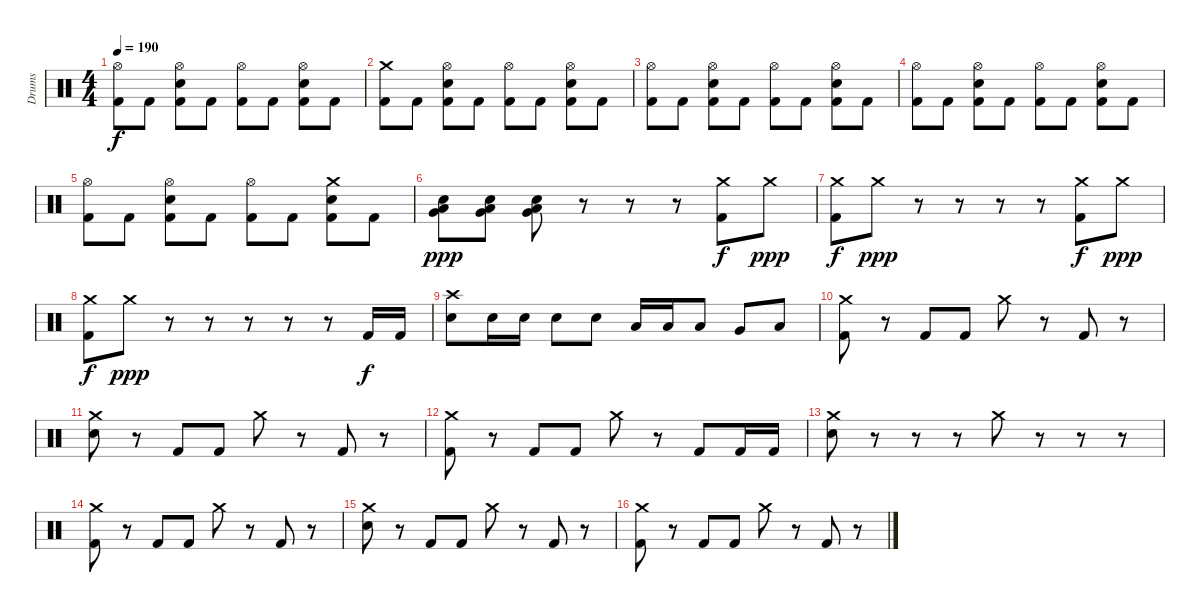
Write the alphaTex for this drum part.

\track ("Drums" "Drums") {instrument percussion}
\staff {score}
\articulation defaults
\ts (4 4)
\tempo 190
\clef neutral
\ks c
("Hi-Hat (open)" "Kick (hit) 2").8{dy f} "Kick (hit) 2".8 ("Hi-Hat (open)" "Electric Snare (hit)" "Kick (hit) 2").8 "Kick (hit) 2".8 ("Hi-Hat (open)" "Kick (hit) 2").8 "Kick (hit) 2".8 ("Hi-Hat (open)" "Electric Snare (hit)" "Kick (hit) 2").8 "Kick (hit) 2".8 |
("Crash medium (hit)" "Kick (hit) 2").8 "Kick (hit) 2".8 ("Hi-Hat (open)" "Electric Snare (hit)" "Kick (hit) 2").8 "Kick (hit) 2".8 ("Hi-Hat (open)" "Kick (hit) 2").8 "Kick (hit) 2".8 ("Hi-Hat (open)" "Electric Snare (hit)" "Kick (hit) 2").8 "Kick (hit) 2".8 |
("Hi-Hat (open)" "Kick (hit) 2").8 "Kick (hit) 2".8 ("Hi-Hat (open)" "Electric Snare (hit)" "Kick (hit) 2").8 "Kick (hit) 2".8 ("Hi-Hat (open)" "Kick (hit) 2").8 "Kick (hit) 2".8 ("Hi-Hat (open)" "Electric Snare (hit)" "Kick (hit) 2").8 "Kick (hit) 2".8 |
("Hi-Hat (open)" "Kick (hit) 2").8 "Kick (hit) 2".8 ("Hi-Hat (open)" "Electric Snare (hit)" "Kick (hit) 2").8 "Kick (hit) 2".8 ("Hi-Hat (open)" "Kick (hit) 2").8 "Kick (hit) 2".8 ("Hi-Hat (open)" "Electric Snare (hit)" "Kick (hit) 2").8 "Kick (hit) 2".8 |
("Hi-Hat (open)" "Kick (hit) 2").8 "Kick (hit) 2".8 ("Hi-Hat (open)" "Electric Snare (hit)" "Kick (hit) 2").8 "Kick (hit) 2".8 ("Hi-Hat (open)" "Kick (hit) 2").8 "Kick (hit) 2".8 ("Crash medium (hit)" "Electric Snare (hit)" "Kick (hit) 2").8 "Kick (hit) 2".8 |
("Electric Snare (hit)" "Very Low Tom (hit)" "Low Floor Tom (hit)").8{dy ppp} ("Electric Snare (hit)" "Very Low Tom (hit)" "Low Floor Tom (hit)").8 ("Electric Snare (hit)" "Very Low Tom (hit)" "Low Floor Tom (hit)").8 r.8 r.8 r.8 ("Crash medium (hit)" "Kick (hit) 2").8{dy f} "Crash medium (hit)".8{dy ppp} |
("Crash medium (hit)" "Kick (hit) 2").8{dy f} "Crash medium (hit)".8{dy ppp} r.8 r.8 r.8 r.8 ("Crash medium (hit)" "Kick (hit) 2").8{dy f} "Crash medium (hit)".8{dy ppp} |
("Crash medium (hit)" "Kick (hit) 2").8{dy f} "Crash medium (hit)".8{dy ppp} r.8 r.8 r.8 r.8 r.8 "Kick (hit) 2".16{dy f} "Kick (hit) 2".16 |
("Crash high (hit)" "Electric Snare (hit)").8 "Electric Snare (hit)".16 "Electric Snare (hit)".16 "Electric Snare (hit)".8 "Electric Snare (hit)".8 "Low Tom (hit)".16 "Low Tom (hit)".16 "Low Tom (hit)".8 "Very Low Tom (hit)".8 "Low Floor Tom (hit)".8 |
("Crash medium (hit)" "Kick (hit) 2").8 r.8 "Kick (hit) 2".8 "Kick (hit) 2".8 "Crash medium (hit)".8 r.8 "Kick (hit) 2".8 r.8 |
("Crash medium (hit)" "Electric Snare (hit)").8 r.8 "Kick (hit) 2".8 "Kick (hit) 2".8 "Crash medium (hit)".8 r.8 "Kick (hit) 2".8 r.8 |
("Crash medium (hit)" "Kick (hit) 2").8 r.8 "Kick (hit) 2".8 "Kick (hit) 2".8 "Crash medium (hit)".8 r.8 "Kick (hit) 2".8 "Kick (hit) 2".16 "Kick (hit) 2".16 |
("Crash medium (hit)" "Electric Snare (hit)").8 r.8 r.8 r.8 "Crash medium (hit)".8 r.8 r.8 r.8 |
("Crash medium (hit)" "Kick (hit) 2").8 r.8 "Kick (hit) 2".8 "Kick (hit) 2".8 "Crash medium (hit)".8 r.8 "Kick (hit) 2".8 r.8 |
("Crash medium (hit)" "Electric Snare (hit)").8 r.8 "Kick (hit) 2".8 "Kick (hit) 2".8 "Crash medium (hit)".8 r.8 "Kick (hit) 2".8 r.8 |
("Crash medium (hit)" "Kick (hit) 2").8 r.8 "Kick (hit) 2".8 "Kick (hit) 2".8 "Crash medium (hit)".8 r.8 "Kick (hit) 2".8 r.8
